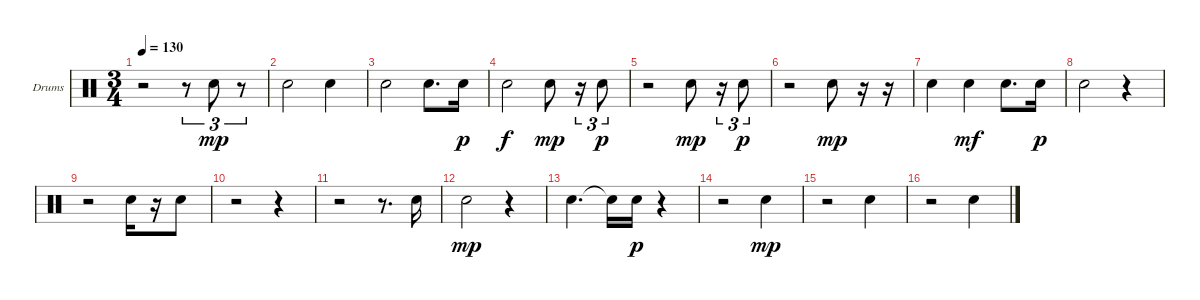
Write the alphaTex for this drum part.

\bracketExtendMode groupsimilarinstruments
\firstSystemTrackNameOrientation horizontal
\otherSystemsTrackNameOrientation horizontal
\track ("Drums" "Drums") {instrument percussion}
\staff {score}
\articulation defaults
\ts (3 4)
\tempo 130
\clef neutral
\ks c
r.2{dy mp} r.8{tu (3 2)} "Snare (hit) 2".8{tu (3 2)} r.8{tu (3 2)} |
"Snare (hit) 2".2 "Snare (hit) 2".4 |
"Snare (hit) 2".2 "Snare (hit) 2".8{d} "Snare (hit) 2".16{dy p} |
"Snare (hit) 2".2{dy f} "Snare (hit) 2".8{dy mp} r.16{tu (3 2)} "Snare (hit) 2".8{tu (3 2) dy p} |
r.2 "Snare (hit) 2".8{dy mp} r.16{tu (3 2)} "Snare (hit) 2".8{tu (3 2) dy p} |
r.2 "Snare (hit) 2".8{dy mp} r.16 r.16 |
"Snare (hit) 2".4 "Snare (hit) 2".4{dy mf} "Snare (hit) 2".8{d} "Snare (hit) 2".16{dy p} |
"Snare (hit) 2".2 r.4 |
r.2 "Snare (hit) 2".16 r.16 "Snare (hit) 2".8 |
r.2 r.4 |
r.2 r.8{d} "Snare (hit) 2".16 |
"Snare (hit) 2".2{dy mp} r.4 |
"Snare (hit) 2".4{d} "Snare (hit) 2"{t}.16 "Snare (hit) 2".16{dy p} r.4 |
r.2 "Snare (hit) 2".4{dy mp} |
r.2 "Snare (hit) 2".4 |
r.2 "Snare (hit) 2".4
